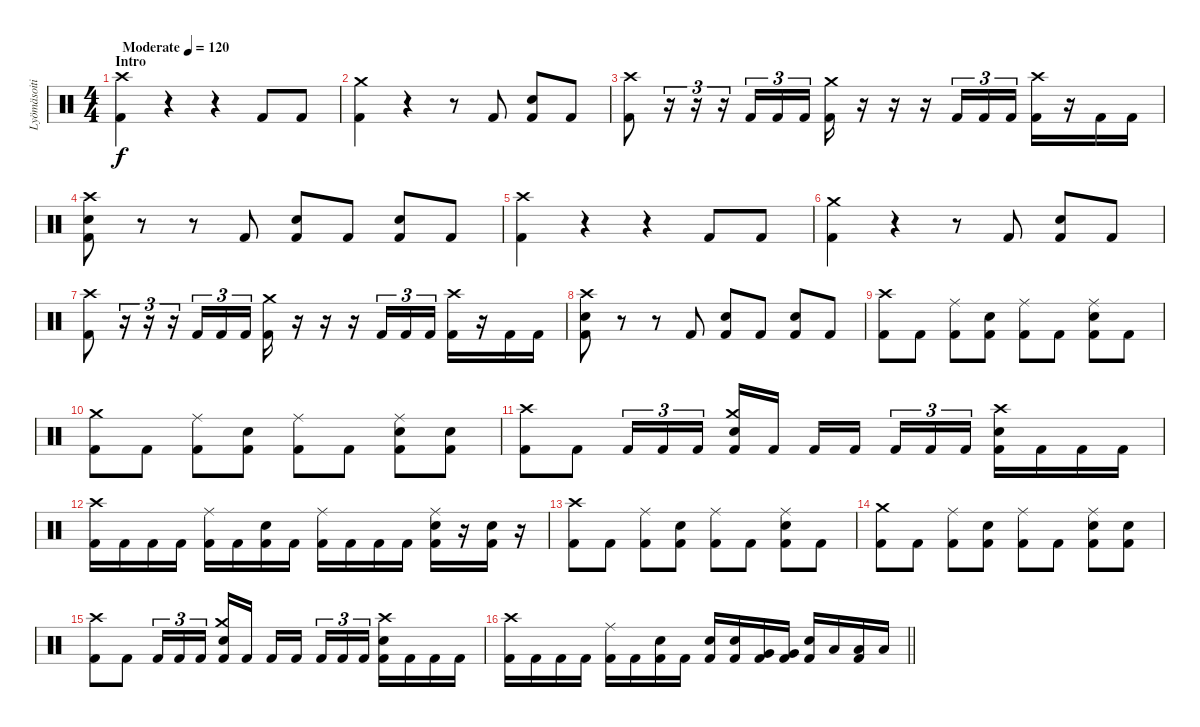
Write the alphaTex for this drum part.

\track ("Lyömäsoitin" "Lyömäsoiti") {instrument percussion}
\staff {score}
\articulation defaults
\ts (4 4)
\section ("" "Intro")
\tempo (120 "Moderate")
\clef neutral
\ks c
("Crash high (hit)" "Kick (hit) 2").4{dy f} r.4 r.4 "Kick (hit) 2".8 "Kick (hit) 2".8 |
("Crash medium (hit)" "Kick (hit) 2").4 r.4 r.8 "Kick (hit) 2".8 ("Electric Snare (hit)" "Kick (hit) 2").8 "Kick (hit) 2".8 |
("Crash high (hit)" "Kick (hit) 2").8 r.16{tu (3 2)} r.16{tu (3 2)} r.16{tu (3 2)} "Kick (hit) 2".16{tu (3 2)} "Kick (hit) 2".16{tu (3 2)} "Kick (hit) 2".16{tu (3 2) beam splitsecondary} ("Crash medium (hit)" "Kick (hit) 2").16 r.16 r.16 r.16 "Kick (hit) 2".16{tu (3 2)} "Kick (hit) 2".16{tu (3 2)} "Kick (hit) 2".16{tu (3 2)} ("Crash high (hit)" "Kick (hit) 2").16 r.16 "Kick (hit) 2".16 "Kick (hit) 2".16 |
("Crash high (hit)" "Electric Snare (hit)" "Kick (hit) 2").8 r.8 r.8 "Kick (hit) 2".8 ("Electric Snare (hit)" "Kick (hit) 2").8 "Kick (hit) 2".8 ("Electric Snare (hit)" "Kick (hit) 2").8 "Kick (hit) 2".8 |
("Crash high (hit)" "Kick (hit) 2").4 r.4 r.4 "Kick (hit) 2".8 "Kick (hit) 2".8 |
("Crash medium (hit)" "Kick (hit) 2").4 r.4 r.8 "Kick (hit) 2".8 ("Electric Snare (hit)" "Kick (hit) 2").8 "Kick (hit) 2".8 |
("Crash high (hit)" "Kick (hit) 2").8 r.16{tu (3 2)} r.16{tu (3 2)} r.16{tu (3 2)} "Kick (hit) 2".16{tu (3 2)} "Kick (hit) 2".16{tu (3 2)} "Kick (hit) 2".16{tu (3 2) beam splitsecondary} ("Crash medium (hit)" "Kick (hit) 2").16 r.16 r.16 r.16 "Kick (hit) 2".16{tu (3 2)} "Kick (hit) 2".16{tu (3 2)} "Kick (hit) 2".16{tu (3 2)} ("Crash high (hit)" "Kick (hit) 2").16 r.16 "Kick (hit) 2".16 "Kick (hit) 2".16 |
("Crash high (hit)" "Electric Snare (hit)" "Kick (hit) 2").8 r.8 r.8 "Kick (hit) 2".8 ("Electric Snare (hit)" "Kick (hit) 2").8 "Kick (hit) 2".8 ("Electric Snare (hit)" "Kick (hit) 2").8 "Kick (hit) 2".8 |
("Crash high (hit)" "Kick (hit) 2").8 "Kick (hit) 2".8 ("Ride (middle)" "Kick (hit) 2").8 ("Electric Snare (hit)" "Kick (hit) 2").8 ("Ride (middle)" "Kick (hit) 2").8 "Kick (hit) 2".8 ("Ride (middle)" "Electric Snare (hit)" "Kick (hit) 2").8 "Kick (hit) 2".8 |
("Crash medium (hit)" "Kick (hit) 2").8 "Kick (hit) 2".8 ("Ride (middle)" "Kick (hit) 2").8 ("Electric Snare (hit)" "Kick (hit) 2").8 ("Ride (middle)" "Kick (hit) 2").8 "Kick (hit) 2".8 ("Ride (middle)" "Electric Snare (hit)" "Kick (hit) 2").8 ("Electric Snare (hit)" "Kick (hit) 2").8 |
("Crash high (hit)" "Kick (hit) 2").8 "Kick (hit) 2".8 "Kick (hit) 2".16{tu (3 2)} "Kick (hit) 2".16{tu (3 2)} "Kick (hit) 2".16{tu (3 2) beam splitsecondary} ("Crash medium (hit)" "Electric Snare (hit)" "Kick (hit) 2").16 "Kick (hit) 2".16 "Kick (hit) 2".16 "Kick (hit) 2".16{beam splitsecondary} "Kick (hit) 2".16{tu (3 2)} "Kick (hit) 2".16{tu (3 2)} "Kick (hit) 2".16{tu (3 2)} ("Crash high (hit)" "Electric Snare (hit)" "Kick (hit) 2").16 "Kick (hit) 2".16 "Kick (hit) 2".16 "Kick (hit) 2".16 |
("Crash high (hit)" "Kick (hit) 2").16 "Kick (hit) 2".16 "Kick (hit) 2".16 "Kick (hit) 2".16 ("Ride (middle)" "Kick (hit) 2").16 "Kick (hit) 2".16 ("Electric Snare (hit)" "Kick (hit) 2").16 "Kick (hit) 2".16 ("Ride (middle)" "Kick (hit) 2").16 "Kick (hit) 2".16 "Kick (hit) 2".16 "Kick (hit) 2".16 ("Ride (middle)" "Electric Snare (hit)" "Kick (hit) 2").16 r.16 ("Electric Snare (hit)" "Kick (hit) 2").16 r.16 |
("Crash high (hit)" "Kick (hit) 2").8 "Kick (hit) 2".8 ("Ride (middle)" "Kick (hit) 2").8 ("Electric Snare (hit)" "Kick (hit) 2").8 ("Ride (middle)" "Kick (hit) 2").8 "Kick (hit) 2".8 ("Ride (middle)" "Electric Snare (hit)" "Kick (hit) 2").8 "Kick (hit) 2".8 |
("Crash medium (hit)" "Kick (hit) 2").8 "Kick (hit) 2".8 ("Ride (middle)" "Kick (hit) 2").8 ("Electric Snare (hit)" "Kick (hit) 2").8 ("Ride (middle)" "Kick (hit) 2").8 "Kick (hit) 2".8 ("Ride (middle)" "Electric Snare (hit)" "Kick (hit) 2").8 ("Electric Snare (hit)" "Kick (hit) 2").8 |
("Crash high (hit)" "Kick (hit) 2").8 "Kick (hit) 2".8 "Kick (hit) 2".16{tu (3 2)} "Kick (hit) 2".16{tu (3 2)} "Kick (hit) 2".16{tu (3 2) beam splitsecondary} ("Crash medium (hit)" "Electric Snare (hit)" "Kick (hit) 2").16 "Kick (hit) 2".16 "Kick (hit) 2".16 "Kick (hit) 2".16{beam splitsecondary} "Kick (hit) 2".16{tu (3 2)} "Kick (hit) 2".16{tu (3 2)} "Kick (hit) 2".16{tu (3 2)} ("Crash high (hit)" "Electric Snare (hit)" "Kick (hit) 2").16 "Kick (hit) 2".16 "Kick (hit) 2".16 "Kick (hit) 2".16 |
\barLineRight lightlight
("Crash high (hit)" "Kick (hit) 2").16 "Kick (hit) 2".16 "Kick (hit) 2".16 "Kick (hit) 2".16 ("Ride (middle)" "Kick (hit) 2").16 "Kick (hit) 2".16 ("Electric Snare (hit)" "Kick (hit) 2").16 "Kick (hit) 2".16 ("Electric Snare (hit)" "Kick (hit) 2").16 ("Electric Snare (hit)" "Kick (hit) 2").16 ("Very Low Tom (hit)" "Kick (hit) 2").16 ("Very Low Tom (hit)" "Kick (hit) 2").16 ("Electric Snare (hit)" "Kick (hit) 2").16 "Low Tom (hit)".16 ("Low Tom (hit)" "Kick (hit) 2").16 "Low Tom (hit)".16
